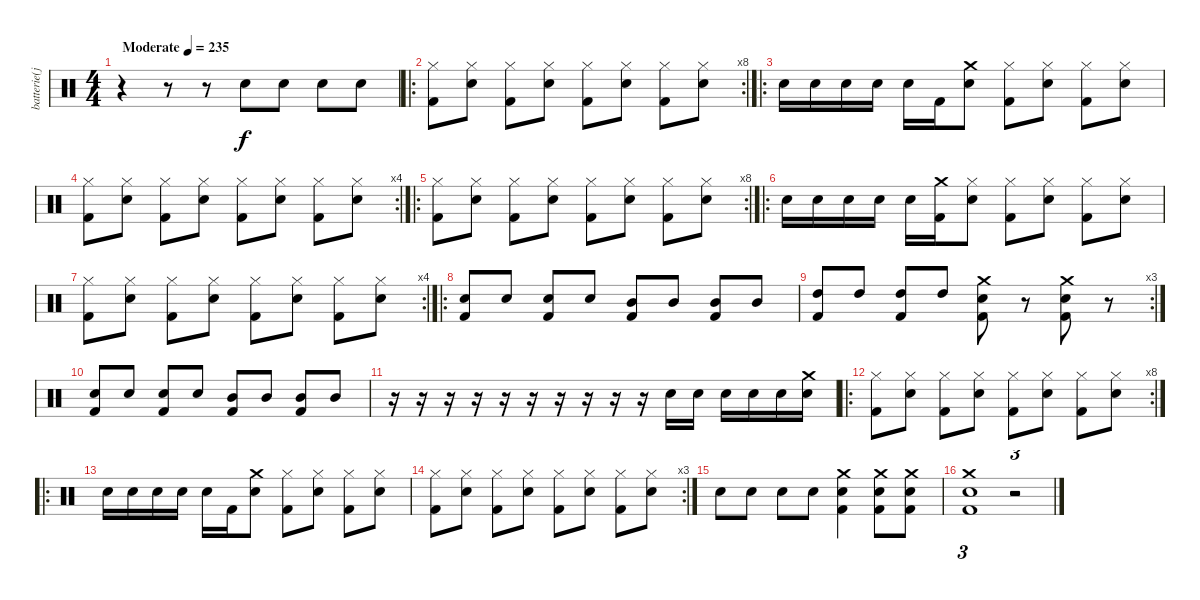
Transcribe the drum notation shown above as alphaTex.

\track ("batterie(jeff)" "batterie(j") {instrument percussion}
\staff {score}
\articulation defaults
\ts (4 4)
\tempo (235 "Moderate")
\clef neutral
\ks c
r.4{dy f} r.8 r.8 "Snare (hit) 2".8 "Snare (hit) 2".8 "Snare (hit) 2".8 "Snare (hit) 2".8 |
\ro
\rc 8
("Hi-Hat (closed)" "Kick (hit) 2").8 ("Hi-Hat (closed)" "Snare (hit) 2").8 ("Hi-Hat (closed)" "Kick (hit) 2").8 ("Hi-Hat (closed)" "Snare (hit) 2").8 ("Hi-Hat (closed)" "Kick (hit) 2").8 ("Hi-Hat (closed)" "Snare (hit) 2").8 ("Hi-Hat (closed)" "Kick (hit) 2").8 ("Hi-Hat (closed)" "Snare (hit) 2").8 |
\ro "Snare (hit) 2".16 "Snare (hit) 2".16 "Snare (hit) 2".16 "Snare (hit) 2".16 "Snare (hit) 2".16 "Kick (hit) 2".16
("Crash medium (hit)" "Snare (hit) 2").8 ("Hi-Hat (closed)" "Kick (hit) 2").8 ("Hi-Hat (closed)" "Snare (hit) 2").8 ("Hi-Hat (closed)" "Kick (hit) 2").8 ("Hi-Hat (closed)" "Snare (hit) 2").8 |
\rc 4
("Hi-Hat (closed)" "Kick (hit) 2").8 ("Hi-Hat (closed)" "Snare (hit) 2").8 ("Hi-Hat (closed)" "Kick (hit) 2").8 ("Hi-Hat (closed)" "Snare (hit) 2").8 ("Hi-Hat (closed)" "Kick (hit) 2").8 ("Hi-Hat (closed)" "Snare (hit) 2").8 ("Hi-Hat (closed)" "Kick (hit) 2").8 ("Hi-Hat (closed)" "Snare (hit) 2").8 |
\ro
\rc 8
("Hi-Hat (closed)" "Kick (hit) 2").8 ("Hi-Hat (closed)" "Snare (hit) 2").8 ("Hi-Hat (closed)" "Kick (hit) 2").8 ("Hi-Hat (closed)" "Snare (hit) 2").8 ("Hi-Hat (closed)" "Kick (hit) 2").8 ("Hi-Hat (closed)" "Snare (hit) 2").8 ("Hi-Hat (closed)" "Kick (hit) 2").8 ("Hi-Hat (closed)" "Snare (hit) 2").8 |
\ro "Snare (hit) 2".16 "Snare (hit) 2".16 "Snare (hit) 2".16 "Snare (hit) 2".16 "Snare (hit) 2".16
("Crash medium (hit)" "Kick (hit) 2").16 ("Hi-Hat (closed)" "Snare (hit) 2").8 ("Hi-Hat (closed)" "Kick (hit) 2").8 ("Hi-Hat (closed)" "Snare (hit) 2").8 ("Hi-Hat (closed)" "Kick (hit) 2").8 ("Hi-Hat (closed)" "Snare (hit) 2").8 |
\rc 4
("Hi-Hat (closed)" "Kick (hit) 2").8 ("Hi-Hat (closed)" "Snare (hit) 2").8 ("Hi-Hat (closed)" "Kick (hit) 2").8 ("Hi-Hat (closed)" "Snare (hit) 2").8 ("Hi-Hat (closed)" "Kick (hit) 2").8 ("Hi-Hat (closed)" "Snare (hit) 2").8 ("Hi-Hat (closed)" "Kick (hit) 2").8 ("Hi-Hat (closed)" "Snare (hit) 2").8 |
\ro
("Snare (hit) 2" "Kick (hit) 2").8 "Snare (hit) 2".8 ("Snare (hit) 2" "Kick (hit) 2").8 "Snare (hit) 2".8 ("Mid Tom (hit)" "Kick (hit) 2").8 "Mid Tom (hit)".8 ("Mid Tom (hit)" "Kick (hit) 2").8 "Mid Tom (hit)".8 |
\rc 3
("High Tom (hit)" "Kick (hit) 2").8 "High Tom (hit)".8 ("High Tom (hit)" "Kick (hit) 2").8 "High Tom (hit)".8 ("Crash medium (hit)" "Snare (hit) 2" "Kick (hit) 2").8 r.8 ("Crash medium (hit)" "Snare (hit) 2" "Kick (hit) 2").8 r.8 |
("Snare (hit) 2" "Kick (hit) 2").8 "Snare (hit) 2".8 ("Snare (hit) 2" "Kick (hit) 2").8 "Snare (hit) 2".8 ("Mid Tom (hit)" "Kick (hit) 2").8 "Mid Tom (hit)".8 ("Mid Tom (hit)" "Kick (hit) 2").8 "Mid Tom (hit)".8 |
r.16 r.16 r.16 r.16 r.16 r.16 r.16 r.16 r.16 r.16 "Snare (hit) 2".16 "Snare (hit) 2".16 "Snare (hit) 2".16 "Snare (hit) 2".16 "Snare (hit) 2".16 ("Crash medium (hit)" "Snare (hit) 2").16 |
\ro
\rc 8
("Hi-Hat (closed)" "Kick (hit) 2").8 ("Hi-Hat (closed)" "Snare (hit) 2").8 ("Hi-Hat (closed)" "Kick (hit) 2").8 ("Hi-Hat (closed)" "Snare (hit) 2").8 ("Hi-Hat (closed)" "Kick (hit) 2").8 ("Hi-Hat (closed)" "Snare (hit) 2").8 ("Hi-Hat (closed)" "Kick (hit) 2").8 ("Hi-Hat (closed)" "Snare (hit) 2").8 |
\ro "Snare (hit) 2".16 "Snare (hit) 2".16 "Snare (hit) 2".16 "Snare (hit) 2".16 "Snare (hit) 2".16 "Kick (hit) 2".16
("Crash medium (hit)" "Snare (hit) 2").8 ("Hi-Hat (closed)" "Kick (hit) 2").8 ("Hi-Hat (closed)" "Snare (hit) 2").8 ("Hi-Hat (closed)" "Kick (hit) 2").8 ("Hi-Hat (closed)" "Snare (hit) 2").8 |
\rc 3
("Hi-Hat (closed)" "Kick (hit) 2").8 ("Hi-Hat (closed)" "Snare (hit) 2").8 ("Hi-Hat (closed)" "Kick (hit) 2").8 ("Hi-Hat (closed)" "Snare (hit) 2").8 ("Hi-Hat (closed)" "Kick (hit) 2").8 ("Hi-Hat (closed)" "Snare (hit) 2").8 ("Hi-Hat (closed)" "Kick (hit) 2").8 ("Hi-Hat (closed)" "Snare (hit) 2").8 |
"Snare (hit) 2".8 "Snare (hit) 2".8 "Snare (hit) 2".8 "Snare (hit) 2".8 ("Crash medium (hit)" "Snare (hit) 2" "Kick (hit) 2").4 ("Crash medium (hit)" "Snare (hit) 2" "Kick (hit) 2").8 ("Crash medium (hit)" "Snare (hit) 2" "Kick (hit) 2").8 |
("Crash medium (hit)" "Snare (hit) 2" "Kick (hit) 2").1{tu (3 2)} r.2{tu (3 2)}
